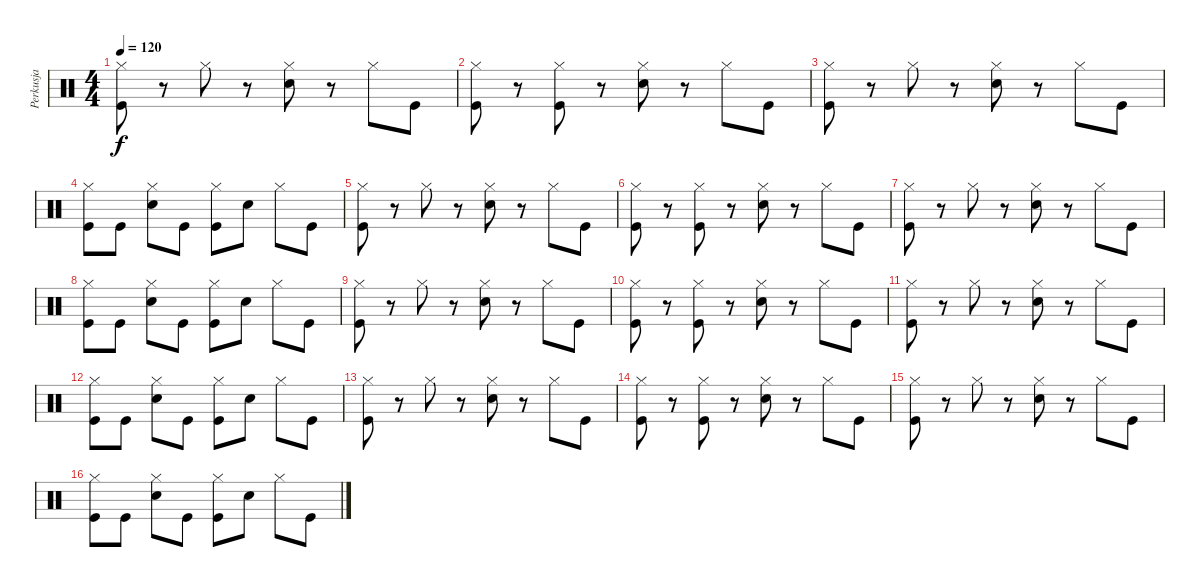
\track ("Perkusja" "Perkusja") {instrument percussion}
\staff {score}
\articulation defaults
\ts (4 4)
\tempo 120
\clef neutral
\ks c
("Hi-Hat (closed)" "Kick (hit)").8{dy f} r.8 "Hi-Hat (closed)".8 r.8 ("Hi-Hat (closed)" "Electric Snare (hit)").8 r.8 "Hi-Hat (closed)".8 "Kick (hit)".8 |
("Hi-Hat (closed)" "Kick (hit)").8 r.8 ("Hi-Hat (closed)" "Kick (hit)").8 r.8 ("Hi-Hat (closed)" "Electric Snare (hit)").8 r.8 "Hi-Hat (closed)".8 "Kick (hit)".8 |
("Hi-Hat (closed)" "Kick (hit)").8 r.8 "Hi-Hat (closed)".8 r.8 ("Hi-Hat (closed)" "Electric Snare (hit)").8 r.8 "Hi-Hat (closed)".8 "Kick (hit)".8 |
("Hi-Hat (closed)" "Kick (hit)").8 "Kick (hit)".8 ("Hi-Hat (closed)" "Electric Snare (hit)").8 "Kick (hit)".8 ("Hi-Hat (closed)" "Kick (hit)").8 "Electric Snare (hit)".8 "Hi-Hat (closed)".8 "Kick (hit)".8 |
("Hi-Hat (closed)" "Kick (hit)").8 r.8 "Hi-Hat (closed)".8 r.8 ("Hi-Hat (closed)" "Electric Snare (hit)").8 r.8 "Hi-Hat (closed)".8 "Kick (hit)".8 |
("Hi-Hat (closed)" "Kick (hit)").8 r.8 ("Hi-Hat (closed)" "Kick (hit)").8 r.8 ("Hi-Hat (closed)" "Electric Snare (hit)").8 r.8 "Hi-Hat (closed)".8 "Kick (hit)".8 |
("Hi-Hat (closed)" "Kick (hit)").8 r.8 "Hi-Hat (closed)".8 r.8 ("Hi-Hat (closed)" "Electric Snare (hit)").8 r.8 "Hi-Hat (closed)".8 "Kick (hit)".8 |
("Hi-Hat (closed)" "Kick (hit)").8 "Kick (hit)".8 ("Hi-Hat (closed)" "Electric Snare (hit)").8 "Kick (hit)".8 ("Hi-Hat (closed)" "Kick (hit)").8 "Electric Snare (hit)".8 "Hi-Hat (closed)".8 "Kick (hit)".8 |
("Hi-Hat (closed)" "Kick (hit)").8 r.8 "Hi-Hat (closed)".8 r.8 ("Hi-Hat (closed)" "Electric Snare (hit)").8 r.8 "Hi-Hat (closed)".8 "Kick (hit)".8 |
("Hi-Hat (closed)" "Kick (hit)").8 r.8 ("Hi-Hat (closed)" "Kick (hit)").8 r.8 ("Hi-Hat (closed)" "Electric Snare (hit)").8 r.8 "Hi-Hat (closed)".8 "Kick (hit)".8 |
("Hi-Hat (closed)" "Kick (hit)").8 r.8 "Hi-Hat (closed)".8 r.8 ("Hi-Hat (closed)" "Electric Snare (hit)").8 r.8 "Hi-Hat (closed)".8 "Kick (hit)".8 |
("Hi-Hat (closed)" "Kick (hit)").8 "Kick (hit)".8 ("Hi-Hat (closed)" "Electric Snare (hit)").8 "Kick (hit)".8 ("Hi-Hat (closed)" "Kick (hit)").8 "Electric Snare (hit)".8 "Hi-Hat (closed)".8 "Kick (hit)".8 |
("Hi-Hat (closed)" "Kick (hit)").8 r.8 "Hi-Hat (closed)".8 r.8 ("Hi-Hat (closed)" "Electric Snare (hit)").8 r.8 "Hi-Hat (closed)".8 "Kick (hit)".8 |
("Hi-Hat (closed)" "Kick (hit)").8 r.8 ("Hi-Hat (closed)" "Kick (hit)").8 r.8 ("Hi-Hat (closed)" "Electric Snare (hit)").8 r.8 "Hi-Hat (closed)".8 "Kick (hit)".8 |
("Hi-Hat (closed)" "Kick (hit)").8 r.8 "Hi-Hat (closed)".8 r.8 ("Hi-Hat (closed)" "Electric Snare (hit)").8 r.8 "Hi-Hat (closed)".8 "Kick (hit)".8 |
("Hi-Hat (closed)" "Kick (hit)").8 "Kick (hit)".8 ("Hi-Hat (closed)" "Electric Snare (hit)").8 "Kick (hit)".8 ("Hi-Hat (closed)" "Kick (hit)").8 "Electric Snare (hit)".8 "Hi-Hat (closed)".8 "Kick (hit)".8
